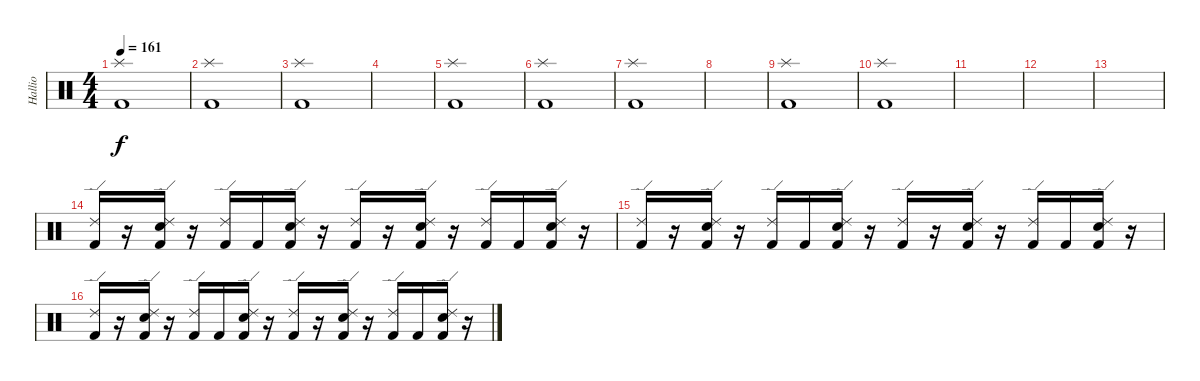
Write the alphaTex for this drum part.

\track ("Hallio" "Hallio") {instrument percussion}
\staff {score}
\articulation defaults
\ts (4 4)
\tempo 161
\clef neutral
\ks c
("Kick (hit) 2" "Splash (hit)").1{dy f} |
("Kick (hit) 2" "Splash (hit)").1 |
("Kick (hit) 2" "Splash (hit)").1 |
|
("Kick (hit) 2" "Splash (hit)").1 |
("Kick (hit) 2" "Splash (hit)").1 |
("Kick (hit) 2" "Splash (hit)").1 |
|
("Kick (hit) 2" "Splash (hit)").1 |
("Kick (hit) 2" "Splash (hit)").1 |
|
|
|
("Kick (hit) 2" "Ride (edge) 2").16 r.16 ("Kick (hit) 2" "Snare (hit) 2" "Ride (edge) 2").16 r.16 ("Kick (hit) 2" "Ride (edge) 2").16 "Kick (hit) 2".16 ("Kick (hit) 2" "Snare (hit) 2" "Ride (edge) 2").16 r.16 ("Kick (hit) 2" "Ride (edge) 2").16 r.16 ("Kick (hit) 2" "Snare (hit) 2" "Ride (edge) 2").16 r.16 ("Kick (hit) 2" "Ride (edge) 2").16 "Kick (hit) 2".16 ("Kick (hit) 2" "Snare (hit) 2" "Ride (edge) 2").16 r.16 |
("Kick (hit) 2" "Ride (edge) 2").16 r.16 ("Kick (hit) 2" "Snare (hit) 2" "Ride (edge) 2").16 r.16 ("Kick (hit) 2" "Ride (edge) 2").16 "Kick (hit) 2".16 ("Kick (hit) 2" "Snare (hit) 2" "Ride (edge) 2").16 r.16 ("Kick (hit) 2" "Ride (edge) 2").16 r.16 ("Kick (hit) 2" "Snare (hit) 2" "Ride (edge) 2").16 r.16 ("Kick (hit) 2" "Ride (edge) 2").16 "Kick (hit) 2".16 ("Kick (hit) 2" "Snare (hit) 2" "Ride (edge) 2").16 r.16 |
("Kick (hit) 2" "Ride (edge) 2").16 r.16 ("Kick (hit) 2" "Snare (hit) 2" "Ride (edge) 2").16 r.16 ("Kick (hit) 2" "Ride (edge) 2").16 "Kick (hit) 2".16 ("Kick (hit) 2" "Snare (hit) 2" "Ride (edge) 2").16 r.16 ("Kick (hit) 2" "Ride (edge) 2").16 r.16 ("Kick (hit) 2" "Snare (hit) 2" "Ride (edge) 2").16 r.16 ("Kick (hit) 2" "Ride (edge) 2").16 "Kick (hit) 2".16 ("Kick (hit) 2" "Snare (hit) 2" "Ride (edge) 2").16 r.16
